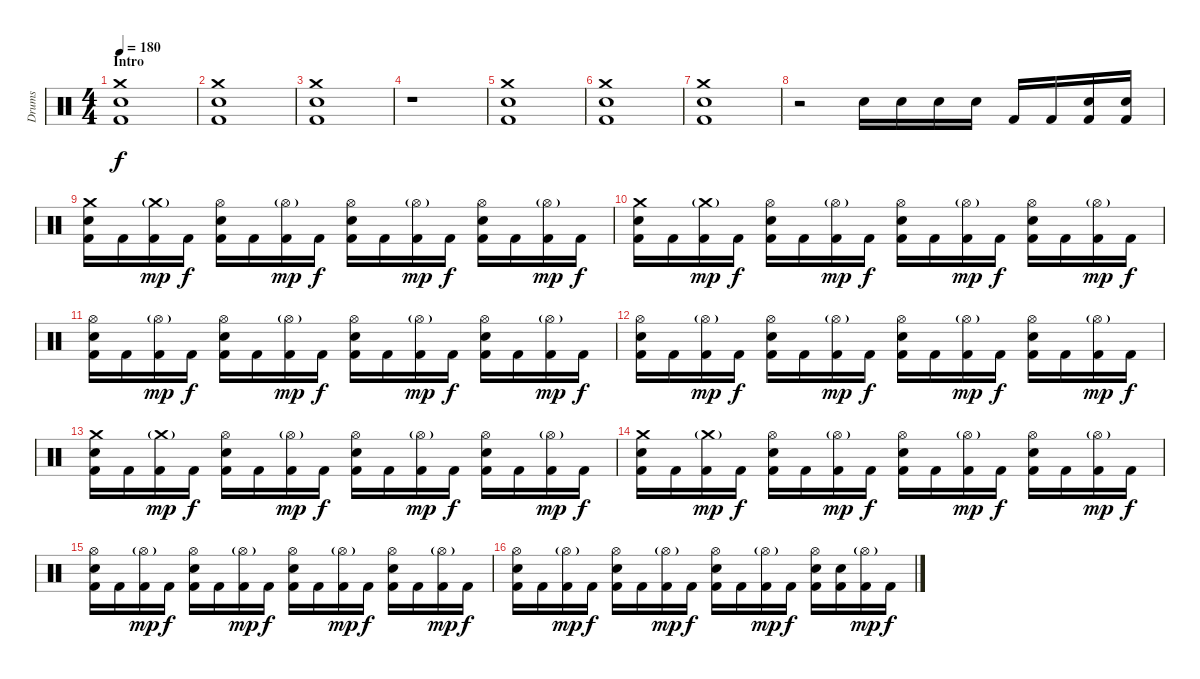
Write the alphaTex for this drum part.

\track ("Drums" "Drums") {instrument percussion}
\staff {score}
\articulation defaults
\ts (4 4)
\section ("" "Intro")
\tempo 180
\clef neutral
\ks c
("Crash medium (hit)" "Electric Snare (hit)" "Kick (hit) 2").1{dy f} |
("Crash medium (hit)" "Electric Snare (hit)" "Kick (hit) 2").1 |
("Crash medium (hit)" "Electric Snare (hit)" "Kick (hit) 2").1 |
r.1 |
("Crash medium (hit)" "Electric Snare (hit)" "Kick (hit) 2").1 |
("Crash medium (hit)" "Electric Snare (hit)" "Kick (hit) 2").1 |
("Crash medium (hit)" "Electric Snare (hit)" "Kick (hit) 2").1 |
r.2 "Electric Snare (hit)".16 "Electric Snare (hit)".16 "Electric Snare (hit)".16 "Electric Snare (hit)".16 "Kick (hit) 2".16 "Kick (hit) 2".16 ("Electric Snare (hit)" "Kick (hit) 2").16 ("Electric Snare (hit)" "Kick (hit) 2").16 |
("Crash medium (hit)" "Electric Snare (hit)" "Kick (hit) 2").16 "Kick (hit) 2".16 ("Crash medium (hit)"{g} "Kick (hit) 2").16{dy mp} "Kick (hit) 2".16{dy f} ("Hi-Hat (open)" "Electric Snare (hit)" "Kick (hit) 2").16 "Kick (hit) 2".16 ("Hi-Hat (open)"{g} "Kick (hit) 2").16{dy mp} "Kick (hit) 2".16{dy f} ("Hi-Hat (open)" "Electric Snare (hit)" "Kick (hit) 2").16 "Kick (hit) 2".16 ("Hi-Hat (open)"{g} "Kick (hit) 2").16{dy mp} "Kick (hit) 2".16{dy f} ("Hi-Hat (open)" "Electric Snare (hit)" "Kick (hit) 2").16 "Kick (hit) 2".16 ("Hi-Hat (open)"{g} "Kick (hit) 2").16{dy mp} "Kick (hit) 2".16{dy f} |
("Crash medium (hit)" "Electric Snare (hit)" "Kick (hit) 2").16 "Kick (hit) 2".16 ("Crash medium (hit)"{g} "Kick (hit) 2").16{dy mp} "Kick (hit) 2".16{dy f} ("Hi-Hat (open)" "Electric Snare (hit)" "Kick (hit) 2").16 "Kick (hit) 2".16 ("Hi-Hat (open)"{g} "Kick (hit) 2").16{dy mp} "Kick (hit) 2".16{dy f} ("Hi-Hat (open)" "Electric Snare (hit)" "Kick (hit) 2").16 "Kick (hit) 2".16 ("Hi-Hat (open)"{g} "Kick (hit) 2").16{dy mp} "Kick (hit) 2".16{dy f} ("Hi-Hat (open)" "Electric Snare (hit)" "Kick (hit) 2").16 "Kick (hit) 2".16 ("Hi-Hat (open)"{g} "Kick (hit) 2").16{dy mp} "Kick (hit) 2".16{dy f} |
("Hi-Hat (open)" "Electric Snare (hit)" "Kick (hit) 2").16 "Kick (hit) 2".16 ("Hi-Hat (open)"{g} "Kick (hit) 2").16{dy mp} "Kick (hit) 2".16{dy f} ("Hi-Hat (open)" "Electric Snare (hit)" "Kick (hit) 2").16 "Kick (hit) 2".16 ("Hi-Hat (open)"{g} "Kick (hit) 2").16{dy mp} "Kick (hit) 2".16{dy f} ("Hi-Hat (open)" "Electric Snare (hit)" "Kick (hit) 2").16 "Kick (hit) 2".16 ("Hi-Hat (open)"{g} "Kick (hit) 2").16{dy mp} "Kick (hit) 2".16{dy f} ("Hi-Hat (open)" "Electric Snare (hit)" "Kick (hit) 2").16 "Kick (hit) 2".16 ("Hi-Hat (open)"{g} "Kick (hit) 2").16{dy mp} "Kick (hit) 2".16{dy f} |
("Hi-Hat (open)" "Electric Snare (hit)" "Kick (hit) 2").16 "Kick (hit) 2".16 ("Hi-Hat (open)"{g} "Kick (hit) 2").16{dy mp} "Kick (hit) 2".16{dy f} ("Hi-Hat (open)" "Electric Snare (hit)" "Kick (hit) 2").16 "Kick (hit) 2".16 ("Hi-Hat (open)"{g} "Kick (hit) 2").16{dy mp} "Kick (hit) 2".16{dy f} ("Hi-Hat (open)" "Electric Snare (hit)" "Kick (hit) 2").16 "Kick (hit) 2".16 ("Hi-Hat (open)"{g} "Kick (hit) 2").16{dy mp} "Kick (hit) 2".16{dy f} ("Hi-Hat (open)" "Electric Snare (hit)" "Kick (hit) 2").16 "Kick (hit) 2".16 ("Hi-Hat (open)"{g} "Kick (hit) 2").16{dy mp} "Kick (hit) 2".16{dy f} |
("Crash medium (hit)" "Electric Snare (hit)" "Kick (hit) 2").16 "Kick (hit) 2".16 ("Crash medium (hit)"{g} "Kick (hit) 2").16{dy mp} "Kick (hit) 2".16{dy f} ("Hi-Hat (open)" "Electric Snare (hit)" "Kick (hit) 2").16 "Kick (hit) 2".16 ("Hi-Hat (open)"{g} "Kick (hit) 2").16{dy mp} "Kick (hit) 2".16{dy f} ("Hi-Hat (open)" "Electric Snare (hit)" "Kick (hit) 2").16 "Kick (hit) 2".16 ("Hi-Hat (open)"{g} "Kick (hit) 2").16{dy mp} "Kick (hit) 2".16{dy f} ("Hi-Hat (open)" "Electric Snare (hit)" "Kick (hit) 2").16 "Kick (hit) 2".16 ("Hi-Hat (open)"{g} "Kick (hit) 2").16{dy mp} "Kick (hit) 2".16{dy f} |
("Crash medium (hit)" "Electric Snare (hit)" "Kick (hit) 2").16 "Kick (hit) 2".16 ("Crash medium (hit)"{g} "Kick (hit) 2").16{dy mp} "Kick (hit) 2".16{dy f} ("Hi-Hat (open)" "Electric Snare (hit)" "Kick (hit) 2").16 "Kick (hit) 2".16 ("Hi-Hat (open)"{g} "Kick (hit) 2").16{dy mp} "Kick (hit) 2".16{dy f} ("Hi-Hat (open)" "Electric Snare (hit)" "Kick (hit) 2").16 "Kick (hit) 2".16 ("Hi-Hat (open)"{g} "Kick (hit) 2").16{dy mp} "Kick (hit) 2".16{dy f} ("Hi-Hat (open)" "Electric Snare (hit)" "Kick (hit) 2").16 "Kick (hit) 2".16 ("Hi-Hat (open)"{g} "Kick (hit) 2").16{dy mp} "Kick (hit) 2".16{dy f} |
("Hi-Hat (open)" "Electric Snare (hit)" "Kick (hit) 2").16 "Kick (hit) 2".16 ("Hi-Hat (open)"{g} "Kick (hit) 2").16{dy mp} "Kick (hit) 2".16{dy f} ("Hi-Hat (open)" "Electric Snare (hit)" "Kick (hit) 2").16 "Kick (hit) 2".16 ("Hi-Hat (open)"{g} "Kick (hit) 2").16{dy mp} "Kick (hit) 2".16{dy f} ("Hi-Hat (open)" "Electric Snare (hit)" "Kick (hit) 2").16 "Kick (hit) 2".16 ("Hi-Hat (open)"{g} "Kick (hit) 2").16{dy mp} "Kick (hit) 2".16{dy f} ("Hi-Hat (open)" "Electric Snare (hit)" "Kick (hit) 2").16 "Kick (hit) 2".16 ("Hi-Hat (open)"{g} "Kick (hit) 2").16{dy mp} "Kick (hit) 2".16{dy f} |
("Hi-Hat (open)" "Electric Snare (hit)" "Kick (hit) 2").16 "Kick (hit) 2".16 ("Hi-Hat (open)"{g} "Kick (hit) 2").16{dy mp} "Kick (hit) 2".16{dy f} ("Hi-Hat (open)" "Electric Snare (hit)" "Kick (hit) 2").16 "Kick (hit) 2".16 ("Hi-Hat (open)"{g} "Kick (hit) 2").16{dy mp} "Kick (hit) 2".16{dy f} ("Hi-Hat (open)" "Electric Snare (hit)" "Kick (hit) 2").16 "Kick (hit) 2".16 ("Hi-Hat (open)"{g} "Kick (hit) 2").16{dy mp} "Kick (hit) 2".16{dy f} ("Hi-Hat (open)" "Electric Snare (hit)" "Kick (hit) 2").16 ("Electric Snare (hit)" "Kick (hit) 2").16 ("Hi-Hat (open)"{g} "Kick (hit) 2").16{dy mp} "Kick (hit) 2".16{dy f}
